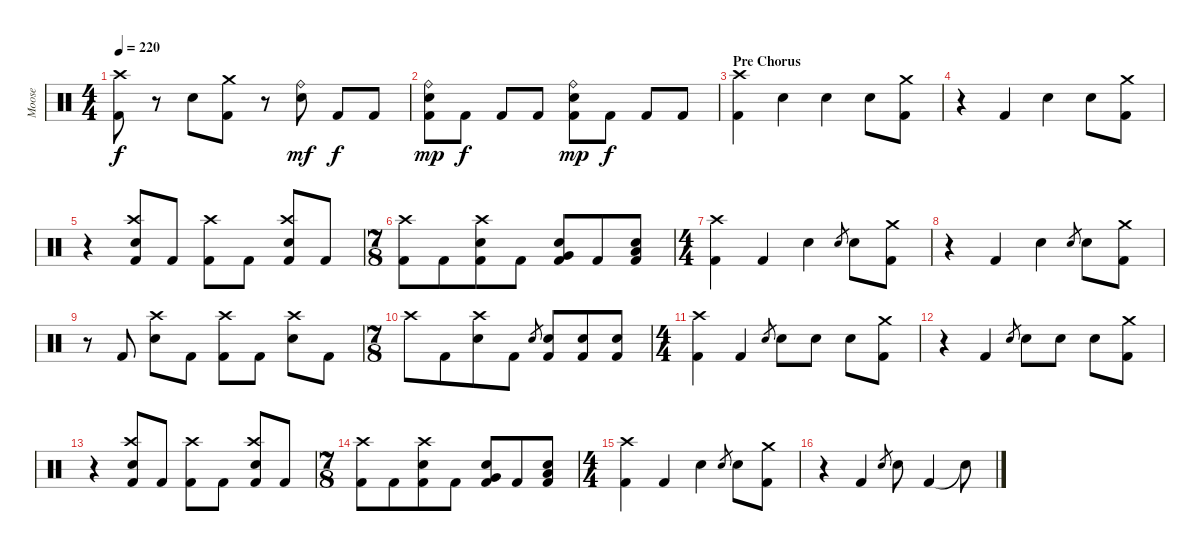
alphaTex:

\track ("Moose" "Moose") {instrument percussion}
\staff {score}
\articulation defaults
\ts (4 4)
\tempo 220
\clef neutral
\ks c
("Kick (hit) 2" "Crash high (hit)").8{dy f} r.8 "Snare (hit) 2".8 ("Kick (hit) 2" "Crash medium (hit)").8 r.8 ("Snare (hit) 2" "Ride (bell)").8{dy mf} "Kick (hit) 2".8{dy f} "Kick (hit) 2".8 |
("Kick (hit) 2" "Snare (hit) 2" "Ride (bell)").8{dy mp} "Kick (hit) 2".8{dy f} "Kick (hit) 2".8 "Kick (hit) 2".8 ("Kick (hit) 2" "Snare (hit) 2" "Ride (bell)").8{dy mp} "Kick (hit) 2".8{dy f} "Kick (hit) 2".8 "Kick (hit) 2".8 |
\section ("" "Pre Chorus")
("Kick (hit) 2" "Crash high (hit)").4 "Snare (hit) 2".4 "Snare (hit) 2".4 "Snare (hit) 2".8 ("Kick (hit) 2" "Crash medium (hit)").8 |
r.4 "Kick (hit) 2".4 "Snare (hit) 2".4 "Snare (hit) 2".8 ("Kick (hit) 2" "Crash medium (hit)").8 |
r.4 ("Kick (hit) 2" "Snare (hit) 2" "Crash high (hit)").8 "Kick (hit) 2".8 ("Kick (hit) 2" "Crash high (hit)").8 "Kick (hit) 2".8 ("Kick (hit) 2" "Snare (hit) 2" "Crash high (hit)").8 "Kick (hit) 2".8 |
\ts (7 8)
("Kick (hit) 2" "Crash high (hit)").8 "Kick (hit) 2".8 ("Kick (hit) 2" "Snare (hit) 2" "Crash high (hit)").8 "Kick (hit) 2".8 ("Kick (hit) 2" "Very Low Tom (hit)" "Snare (hit) 2").8 "Kick (hit) 2".8 ("Kick (hit) 2" "Low Floor Tom (hit)" "Snare (hit) 2").8 |
\ts (4 4)
("Kick (hit) 2" "Crash high (hit)").4 "Kick (hit) 2".4 "Snare (hit) 2".4 "Snare (hit) 2".8{gr} "Snare (hit) 2".8 ("Kick (hit) 2" "Crash medium (hit)").8 |
r.4 "Kick (hit) 2".4 "Snare (hit) 2".4 "Snare (hit) 2".8{gr} "Snare (hit) 2".8 ("Kick (hit) 2" "Crash medium (hit)").8 |
r.8 "Kick (hit) 2".8 ("Snare (hit) 2" "Crash high (hit)").8 "Kick (hit) 2".8 ("Kick (hit) 2" "Crash high (hit)").8 "Kick (hit) 2".8 ("Snare (hit) 2" "Crash high (hit)").8 "Kick (hit) 2".8 |
\ts (7 8)
"Crash high (hit)".8 "Kick (hit) 2".8 ("Snare (hit) 2" "Crash high (hit)").8 "Kick (hit) 2".8 "Snare (hit) 2".8{gr} ("Kick (hit) 2" "Snare (hit) 2").8 ("Kick (hit) 2" "Snare (hit) 2").8 ("Kick (hit) 2" "Snare (hit) 2").8 |
\ts (4 4)
("Kick (hit) 2" "Crash high (hit)").4 "Kick (hit) 2".4 "Snare (hit) 2".8{gr} "Snare (hit) 2".8 "Snare (hit) 2".8 "Snare (hit) 2".8 ("Kick (hit) 2" "Crash medium (hit)").8 |
r.4 "Kick (hit) 2".4 "Snare (hit) 2".8{gr} "Snare (hit) 2".8 "Snare (hit) 2".8 "Snare (hit) 2".8 ("Kick (hit) 2" "Crash medium (hit)").8 |
r.4 ("Kick (hit) 2" "Snare (hit) 2" "Crash high (hit)").8 "Kick (hit) 2".8 ("Kick (hit) 2" "Crash high (hit)").8 "Kick (hit) 2".8 ("Kick (hit) 2" "Snare (hit) 2" "Crash high (hit)").8 "Kick (hit) 2".8 |
\ts (7 8)
("Kick (hit) 2" "Crash high (hit)").8 "Kick (hit) 2".8 ("Kick (hit) 2" "Snare (hit) 2" "Crash high (hit)").8 "Kick (hit) 2".8 ("Kick (hit) 2" "Very Low Tom (hit)" "Snare (hit) 2").8 "Kick (hit) 2".8 ("Kick (hit) 2" "Low Floor Tom (hit)" "Snare (hit) 2").8 |
\ts (4 4)
("Kick (hit) 2" "Crash high (hit)").4 "Kick (hit) 2".4 "Snare (hit) 2".4 "Snare (hit) 2".8{gr} "Snare (hit) 2".8 ("Kick (hit) 2" "Crash medium (hit)").8 |
r.4 "Kick (hit) 2".4 "Snare (hit) 2".8{gr} "Snare (hit) 2".8 "Kick (hit) 2".4 "Snare (hit)"{t}.8
